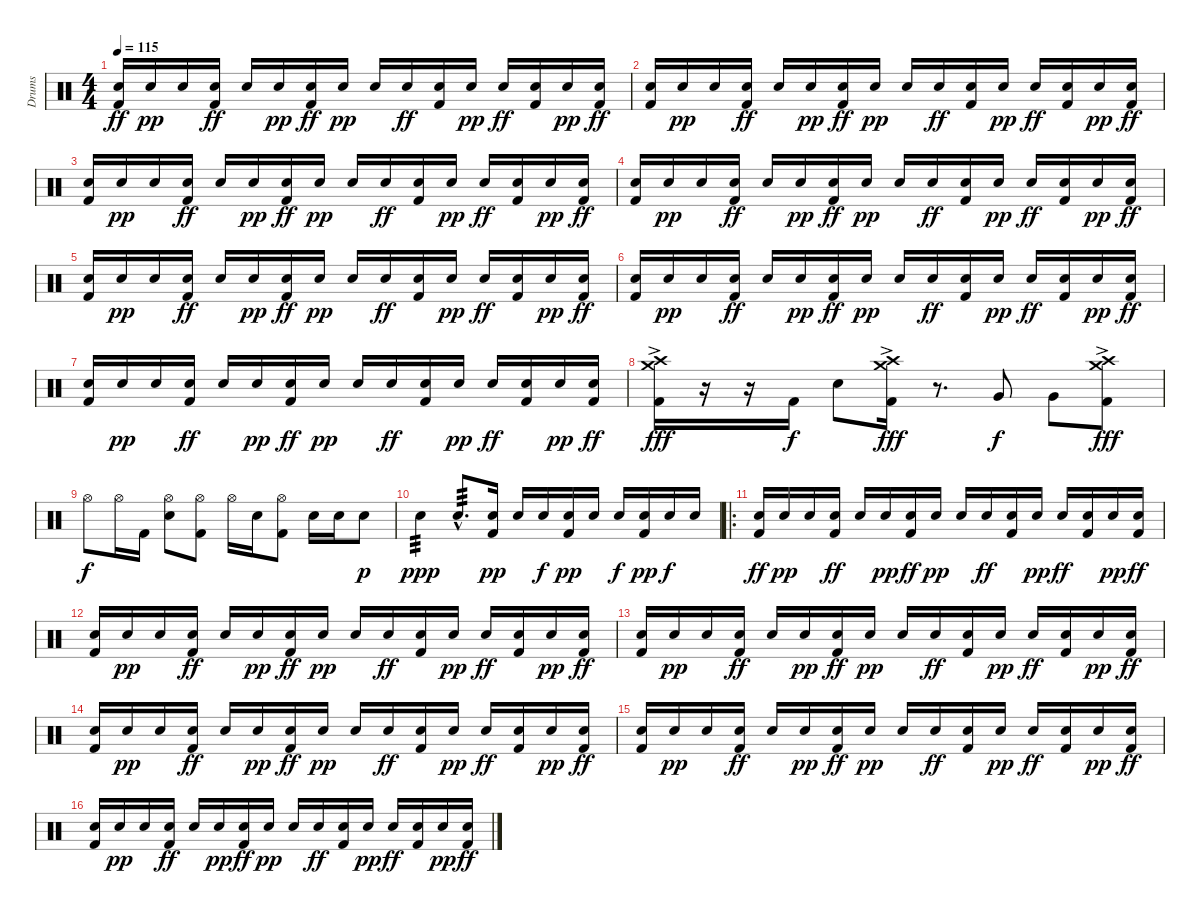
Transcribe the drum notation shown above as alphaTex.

\track ("Drums" "Drums") {instrument percussion}
\staff {score}
\articulation defaults
\ts (4 4)
\tempo 115
\clef neutral
\ks c
("Snare (hit) 2" "Kick (hit) 2").16{dy ff} "Snare (hit) 2".16{dy pp} "Snare (hit) 2".16 ("Snare (hit) 2" "Kick (hit) 2").16{dy ff} "Snare (hit) 2".16 "Snare (hit) 2".16{dy pp} ("Snare (hit) 2" "Kick (hit) 2").16{dy ff} "Snare (hit) 2".16{dy pp} "Snare (hit) 2".16 "Snare (hit) 2".16{dy ff} ("Snare (hit) 2" "Kick (hit) 2").16 "Snare (hit) 2".16{dy pp} "Snare (hit) 2".16{dy ff} ("Snare (hit) 2" "Kick (hit) 2").16 "Snare (hit) 2".16{dy pp} ("Snare (hit) 2" "Kick (hit) 2").16{dy ff} |
("Snare (hit) 2" "Kick (hit) 2").16 "Snare (hit) 2".16{dy pp} "Snare (hit) 2".16 ("Snare (hit) 2" "Kick (hit) 2").16{dy ff} "Snare (hit) 2".16 "Snare (hit) 2".16{dy pp} ("Snare (hit) 2" "Kick (hit) 2").16{dy ff} "Snare (hit) 2".16{dy pp} "Snare (hit) 2".16 "Snare (hit) 2".16{dy ff} ("Snare (hit) 2" "Kick (hit) 2").16 "Snare (hit) 2".16{dy pp} "Snare (hit) 2".16{dy ff} ("Snare (hit) 2" "Kick (hit) 2").16 "Snare (hit) 2".16{dy pp} ("Snare (hit) 2" "Kick (hit) 2").16{dy ff} |
("Snare (hit) 2" "Kick (hit) 2").16 "Snare (hit) 2".16{dy pp} "Snare (hit) 2".16 ("Snare (hit) 2" "Kick (hit) 2").16{dy ff} "Snare (hit) 2".16 "Snare (hit) 2".16{dy pp} ("Snare (hit) 2" "Kick (hit) 2").16{dy ff} "Snare (hit) 2".16{dy pp} "Snare (hit) 2".16 "Snare (hit) 2".16{dy ff} ("Snare (hit) 2" "Kick (hit) 2").16 "Snare (hit) 2".16{dy pp} "Snare (hit) 2".16{dy ff} ("Snare (hit) 2" "Kick (hit) 2").16 "Snare (hit) 2".16{dy pp} ("Snare (hit) 2" "Kick (hit) 2").16{dy ff} |
("Snare (hit) 2" "Kick (hit) 2").16 "Snare (hit) 2".16{dy pp} "Snare (hit) 2".16 ("Snare (hit) 2" "Kick (hit) 2").16{dy ff} "Snare (hit) 2".16 "Snare (hit) 2".16{dy pp} ("Snare (hit) 2" "Kick (hit) 2").16{dy ff} "Snare (hit) 2".16{dy pp} "Snare (hit) 2".16 "Snare (hit) 2".16{dy ff} ("Snare (hit) 2" "Kick (hit) 2").16 "Snare (hit) 2".16{dy pp} "Snare (hit) 2".16{dy ff} ("Snare (hit) 2" "Kick (hit) 2").16 "Snare (hit) 2".16{dy pp} ("Snare (hit) 2" "Kick (hit) 2").16{dy ff} |
("Snare (hit) 2" "Kick (hit) 2").16 "Snare (hit) 2".16{dy pp} "Snare (hit) 2".16 ("Snare (hit) 2" "Kick (hit) 2").16{dy ff} "Snare (hit) 2".16 "Snare (hit) 2".16{dy pp} ("Snare (hit) 2" "Kick (hit) 2").16{dy ff} "Snare (hit) 2".16{dy pp} "Snare (hit) 2".16 "Snare (hit) 2".16{dy ff} ("Snare (hit) 2" "Kick (hit) 2").16 "Snare (hit) 2".16{dy pp} "Snare (hit) 2".16{dy ff} ("Snare (hit) 2" "Kick (hit) 2").16 "Snare (hit) 2".16{dy pp} ("Snare (hit) 2" "Kick (hit) 2").16{dy ff} |
("Snare (hit) 2" "Kick (hit) 2").16 "Snare (hit) 2".16{dy pp} "Snare (hit) 2".16 ("Snare (hit) 2" "Kick (hit) 2").16{dy ff} "Snare (hit) 2".16 "Snare (hit) 2".16{dy pp} ("Snare (hit) 2" "Kick (hit) 2").16{dy ff} "Snare (hit) 2".16{dy pp} "Snare (hit) 2".16 "Snare (hit) 2".16{dy ff} ("Snare (hit) 2" "Kick (hit) 2").16 "Snare (hit) 2".16{dy pp} "Snare (hit) 2".16{dy ff} ("Snare (hit) 2" "Kick (hit) 2").16 "Snare (hit) 2".16{dy pp} ("Snare (hit) 2" "Kick (hit) 2").16{dy ff} |
("Snare (hit) 2" "Kick (hit) 2").16 "Snare (hit) 2".16{dy pp} "Snare (hit) 2".16 ("Snare (hit) 2" "Kick (hit) 2").16{dy ff} "Snare (hit) 2".16 "Snare (hit) 2".16{dy pp} ("Snare (hit) 2" "Kick (hit) 2").16{dy ff} "Snare (hit) 2".16{dy pp} "Snare (hit) 2".16 "Snare (hit) 2".16{dy ff} ("Snare (hit) 2" "Kick (hit) 2").16 "Snare (hit) 2".16{dy pp} "Snare (hit) 2".16{dy ff} ("Snare (hit) 2" "Kick (hit) 2").16 "Snare (hit) 2".16{dy pp} ("Snare (hit) 2" "Kick (hit) 2").16{dy ff} |
("Crash medium (hit)"{ac} "Crash high (hit)"{ac} "Kick (hit) 2"{ac}).16{dy fff} r.16 r.16 "Kick (hit) 2".16{dy f} "Snare (hit) 2".8 ("Crash medium (hit)"{ac} "Crash high (hit)"{ac} "Kick (hit) 2"{ac}).16{dy fff} r.8{d} "Very Low Tom (hit)".8{dy f} "Very Low Tom (hit)".8 ("Crash medium (hit)"{ac} "Crash high (hit)"{ac} "Kick (hit) 2"{ac}).8{dy fff} |
"Hi-Hat (open)".8{dy f} "Hi-Hat (open)".16 "Kick (hit) 2".16 ("Hi-Hat (open)" "Snare (hit) 2").8 ("Hi-Hat (open)" "Kick (hit) 2").8 "Hi-Hat (open)".16 "Snare (hit) 2".16 ("Hi-Hat (open)" "Kick (hit) 2").8 "Snare (hit) 2".16 "Snare (hit) 2".16 "Snare (hit) 2".8{dy p} |
"Snare (hit) 2".4{tp 3 dy ppp} "Snare (hit) 2"{hac}.8{d tp 3} ("Snare (hit) 2" "Kick (hit) 2").16{dy pp} "Snare (hit) 2".16 "Snare (hit) 2".16{dy f} ("Snare (hit) 2" "Kick (hit) 2").16{dy pp} "Snare (hit) 2".16 "Snare (hit) 2".16{dy f} ("Snare (hit) 2" "Kick (hit) 2").16{dy pp} "Snare (hit) 2".16{dy f} "Snare (hit) 2".16 |
\ro
("Snare (hit) 2" "Kick (hit) 2").16{dy ff} "Snare (hit) 2".16{dy pp} "Snare (hit) 2".16 ("Snare (hit) 2" "Kick (hit) 2").16{dy ff} "Snare (hit) 2".16 "Snare (hit) 2".16{dy pp} ("Snare (hit) 2" "Kick (hit) 2").16{dy ff} "Snare (hit) 2".16{dy pp} "Snare (hit) 2".16 "Snare (hit) 2".16{dy ff} ("Snare (hit) 2" "Kick (hit) 2").16 "Snare (hit) 2".16{dy pp} "Snare (hit) 2".16{dy ff} ("Snare (hit) 2" "Kick (hit) 2").16 "Snare (hit) 2".16{dy pp} ("Snare (hit) 2" "Kick (hit) 2").16{dy ff} |
("Snare (hit) 2" "Kick (hit) 2").16 "Snare (hit) 2".16{dy pp} "Snare (hit) 2".16 ("Snare (hit) 2" "Kick (hit) 2").16{dy ff} "Snare (hit) 2".16 "Snare (hit) 2".16{dy pp} ("Snare (hit) 2" "Kick (hit) 2").16{dy ff} "Snare (hit) 2".16{dy pp} "Snare (hit) 2".16 "Snare (hit) 2".16{dy ff} ("Snare (hit) 2" "Kick (hit) 2").16 "Snare (hit) 2".16{dy pp} "Snare (hit) 2".16{dy ff} ("Snare (hit) 2" "Kick (hit) 2").16 "Snare (hit) 2".16{dy pp} ("Snare (hit) 2" "Kick (hit) 2").16{dy ff} |
("Snare (hit) 2" "Kick (hit) 2").16 "Snare (hit) 2".16{dy pp} "Snare (hit) 2".16 ("Snare (hit) 2" "Kick (hit) 2").16{dy ff} "Snare (hit) 2".16 "Snare (hit) 2".16{dy pp} ("Snare (hit) 2" "Kick (hit) 2").16{dy ff} "Snare (hit) 2".16{dy pp} "Snare (hit) 2".16 "Snare (hit) 2".16{dy ff} ("Snare (hit) 2" "Kick (hit) 2").16 "Snare (hit) 2".16{dy pp} "Snare (hit) 2".16{dy ff} ("Snare (hit) 2" "Kick (hit) 2").16 "Snare (hit) 2".16{dy pp} ("Snare (hit) 2" "Kick (hit) 2").16{dy ff} |
("Snare (hit) 2" "Kick (hit) 2").16 "Snare (hit) 2".16{dy pp} "Snare (hit) 2".16 ("Snare (hit) 2" "Kick (hit) 2").16{dy ff} "Snare (hit) 2".16 "Snare (hit) 2".16{dy pp} ("Snare (hit) 2" "Kick (hit) 2").16{dy ff} "Snare (hit) 2".16{dy pp} "Snare (hit) 2".16 "Snare (hit) 2".16{dy ff} ("Snare (hit) 2" "Kick (hit) 2").16 "Snare (hit) 2".16{dy pp} "Snare (hit) 2".16{dy ff} ("Snare (hit) 2" "Kick (hit) 2").16 "Snare (hit) 2".16{dy pp} ("Snare (hit) 2" "Kick (hit) 2").16{dy ff} |
("Snare (hit) 2" "Kick (hit) 2").16 "Snare (hit) 2".16{dy pp} "Snare (hit) 2".16 ("Snare (hit) 2" "Kick (hit) 2").16{dy ff} "Snare (hit) 2".16 "Snare (hit) 2".16{dy pp} ("Snare (hit) 2" "Kick (hit) 2").16{dy ff} "Snare (hit) 2".16{dy pp} "Snare (hit) 2".16 "Snare (hit) 2".16{dy ff} ("Snare (hit) 2" "Kick (hit) 2").16 "Snare (hit) 2".16{dy pp} "Snare (hit) 2".16{dy ff} ("Snare (hit) 2" "Kick (hit) 2").16 "Snare (hit) 2".16{dy pp} ("Snare (hit) 2" "Kick (hit) 2").16{dy ff} |
("Snare (hit) 2" "Kick (hit) 2").16 "Snare (hit) 2".16{dy pp} "Snare (hit) 2".16 ("Snare (hit) 2" "Kick (hit) 2").16{dy ff} "Snare (hit) 2".16 "Snare (hit) 2".16{dy pp} ("Snare (hit) 2" "Kick (hit) 2").16{dy ff} "Snare (hit) 2".16{dy pp} "Snare (hit) 2".16 "Snare (hit) 2".16{dy ff} ("Snare (hit) 2" "Kick (hit) 2").16 "Snare (hit) 2".16{dy pp} "Snare (hit) 2".16{dy ff} ("Snare (hit) 2" "Kick (hit) 2").16 "Snare (hit) 2".16{dy pp} ("Snare (hit) 2" "Kick (hit) 2").16{dy ff}
